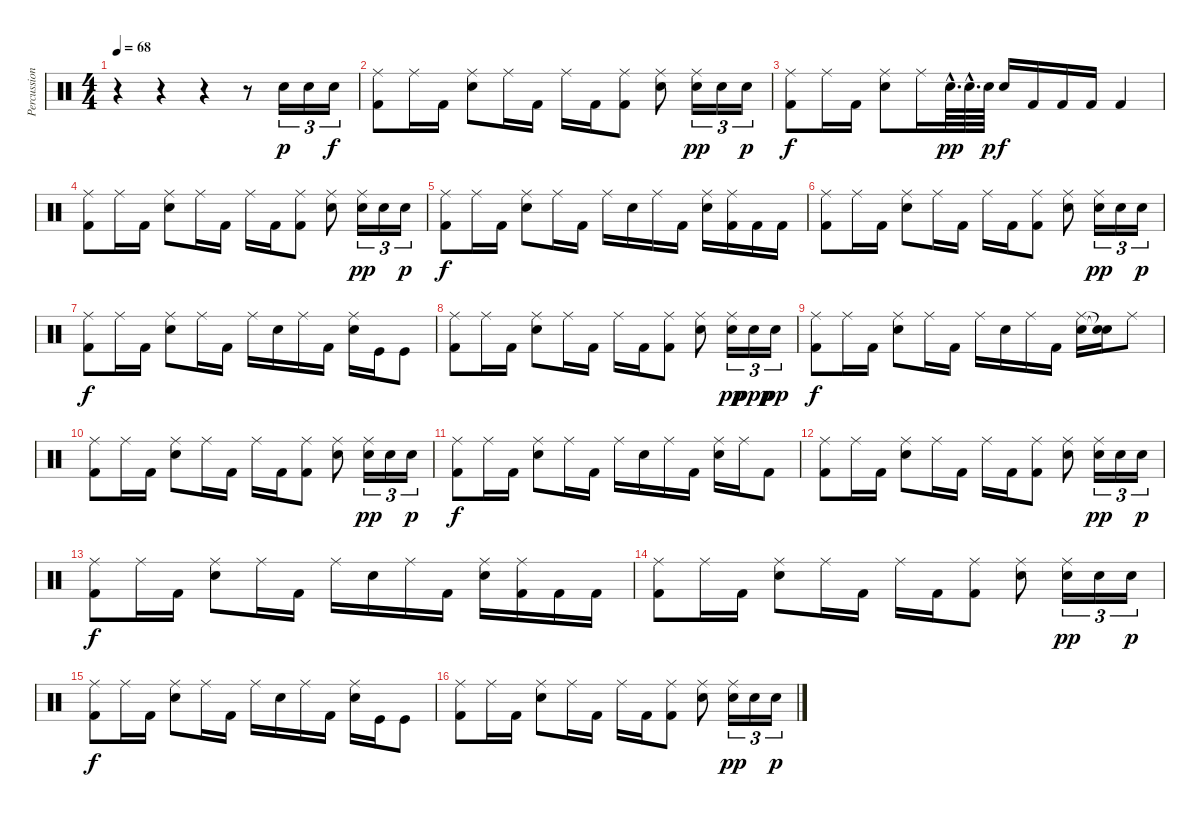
\track ("Percussion" "Percussion") {instrument percussion}
\staff {score}
\articulation defaults
\ts (4 4)
\tempo 68
\clef neutral
\ks c
r.4{dy p} r.4 r.4 r.8 "Snare (hit) 2".16{tu (3 2)} "Snare (hit) 2".16{tu (3 2)} "Snare (hit) 2".16{tu (3 2) dy f} |
("Ride (middle)" "Kick (hit) 2").8 "Ride (middle)".16 "Kick (hit) 2".16 ("Ride (middle)" "Snare (hit) 2").8 "Ride (middle)".16 "Kick (hit) 2".16 "Ride (middle)".16 "Kick (hit) 2".16 ("Ride (middle)" "Kick (hit) 2").8 ("Ride (middle)" "Snare (hit) 2").8 ("Ride (middle)" "Snare (hit) 2").16{tu (3 2) dy pp} "Snare (hit) 2".16{tu (3 2)} "Snare (hit) 2".16{tu (3 2) dy p} |
("Ride (middle)" "Kick (hit) 2").8{dy f} "Ride (middle)".16 "Kick (hit) 2".16 ("Ride (middle)" "Snare (hit) 2").8 "Ride (middle)".16 "Snare (hit) 2"{hac}.64{d dy pp} "Snare (hit) 2"{hac}.64{d} "Snare (hit) 2".64{dy p} "Snare (hit) 2".16{dy f} "Kick (hit) 2".16 "Kick (hit) 2".16 "Kick (hit) 2".16 "Kick (hit) 2".4 |
("Ride (middle)" "Kick (hit) 2").8 "Ride (middle)".16 "Kick (hit) 2".16 ("Ride (middle)" "Snare (hit) 2").8 "Ride (middle)".16 "Kick (hit) 2".16 "Ride (middle)".16 "Kick (hit) 2".16 ("Ride (middle)" "Kick (hit) 2").8 ("Ride (middle)" "Snare (hit) 2").8 ("Ride (middle)" "Snare (hit) 2").16{tu (3 2) dy pp} "Snare (hit) 2".16{tu (3 2)} "Snare (hit) 2".16{tu (3 2) dy p} |
("Ride (middle)" "Kick (hit) 2").8{dy f} "Ride (middle)".16 "Kick (hit) 2".16 ("Ride (middle)" "Snare (hit) 2").8 "Ride (middle)".16 "Kick (hit) 2".16 "Ride (middle)".16 "Snare (hit) 2".16 "Ride (middle)".16 "Kick (hit) 2".16 ("Ride (middle)" "Snare (hit) 2").16 ("Ride (middle)" "Kick (hit) 2").16 "Kick (hit) 2".16 "Kick (hit) 2".16 |
("Ride (middle)" "Kick (hit) 2").8 "Ride (middle)".16 "Kick (hit) 2".16 ("Ride (middle)" "Snare (hit) 2").8 "Ride (middle)".16 "Kick (hit) 2".16 "Ride (middle)".16 "Kick (hit) 2".16 ("Ride (middle)" "Kick (hit) 2").8 ("Ride (middle)" "Snare (hit) 2").8 ("Ride (middle)" "Snare (hit) 2").16{tu (3 2) dy pp} "Snare (hit) 2".16{tu (3 2)} "Snare (hit) 2".16{tu (3 2) dy p} |
("Ride (middle)" "Kick (hit) 2").8{dy f} "Ride (middle)".16 "Kick (hit) 2".16 ("Ride (middle)" "Snare (hit) 2").8 "Ride (middle)".16 "Kick (hit) 2".16 "Ride (middle)".16 "Snare (hit) 2".16 "Ride (middle)".16 "Kick (hit) 2".16 ("Ride (middle)" "Snare (hit) 2").16 "Kick (hit)".16 "Kick (hit)".8 |
("Ride (middle)" "Kick (hit) 2").8 "Ride (middle)".16 "Kick (hit) 2".16 ("Ride (middle)" "Snare (hit) 2").8 "Ride (middle)".16 "Kick (hit) 2".16 "Ride (middle)".16 "Kick (hit) 2".16 ("Ride (middle)" "Kick (hit) 2").8 ("Ride (middle)" "Snare (hit) 2").8 ("Ride (middle)" "Snare (hit) 2").16{tu (3 2) dy pp} "Snare (hit) 2".16{tu (3 2) dy ppp} "Snare (hit) 2".16{tu (3 2) dy pp} |
("Ride (middle)" "Kick (hit) 2").8{dy f} "Ride (middle)".16 "Kick (hit) 2".16 ("Ride (middle)" "Snare (hit) 2").8 "Ride (middle)".16 "Kick (hit) 2".16 "Ride (middle)".16 "Snare (hit) 2".16 "Ride (middle)".16 "Kick (hit) 2".16 ("Ride (middle)" "Snare (hit) 2").16 ("Snare (hit)"{t} "Snare (hit)"{t}).16 "Ride (middle)".8 |
("Ride (middle)" "Kick (hit) 2").8 "Ride (middle)".16 "Kick (hit) 2".16 ("Ride (middle)" "Snare (hit) 2").8 "Ride (middle)".16 "Kick (hit) 2".16 "Ride (middle)".16 "Kick (hit) 2".16 ("Ride (middle)" "Kick (hit) 2").8 ("Ride (middle)" "Snare (hit) 2").8 ("Ride (middle)" "Snare (hit) 2").16{tu (3 2) dy pp} "Snare (hit) 2".16{tu (3 2)} "Snare (hit) 2".16{tu (3 2) dy p} |
("Ride (middle)" "Kick (hit) 2").8{dy f} "Ride (middle)".16 "Kick (hit) 2".16 ("Ride (middle)" "Snare (hit) 2").8 "Ride (middle)".16 "Kick (hit) 2".16 "Ride (middle)".16 "Snare (hit) 2".16 "Ride (middle)".16 "Kick (hit) 2".16 ("Ride (middle)" "Snare (hit) 2").16 "Ride (middle)".16 "Kick (hit) 2".8 |
("Ride (middle)" "Kick (hit) 2").8 "Ride (middle)".16 "Kick (hit) 2".16 ("Ride (middle)" "Snare (hit) 2").8 "Ride (middle)".16 "Kick (hit) 2".16 "Ride (middle)".16 "Kick (hit) 2".16 ("Ride (middle)" "Kick (hit) 2").8 ("Ride (middle)" "Snare (hit) 2").8 ("Ride (middle)" "Snare (hit) 2").16{tu (3 2) dy pp} "Snare (hit) 2".16{tu (3 2)} "Snare (hit) 2".16{tu (3 2) dy p} |
("Ride (middle)" "Kick (hit) 2").8{dy f} "Ride (middle)".16 "Kick (hit) 2".16 ("Ride (middle)" "Snare (hit) 2").8 "Ride (middle)".16 "Kick (hit) 2".16 "Ride (middle)".16 "Snare (hit) 2".16 "Ride (middle)".16 "Kick (hit) 2".16 ("Ride (middle)" "Snare (hit) 2").16 ("Ride (middle)" "Kick (hit) 2").16 "Kick (hit) 2".16 "Kick (hit) 2".16 |
("Ride (middle)" "Kick (hit) 2").8 "Ride (middle)".16 "Kick (hit) 2".16 ("Ride (middle)" "Snare (hit) 2").8 "Ride (middle)".16 "Kick (hit) 2".16 "Ride (middle)".16 "Kick (hit) 2".16 ("Ride (middle)" "Kick (hit) 2").8 ("Ride (middle)" "Snare (hit) 2").8 ("Ride (middle)" "Snare (hit) 2").16{tu (3 2) dy pp} "Snare (hit) 2".16{tu (3 2)} "Snare (hit) 2".16{tu (3 2) dy p} |
("Ride (middle)" "Kick (hit) 2").8{dy f} "Ride (middle)".16 "Kick (hit) 2".16 ("Ride (middle)" "Snare (hit) 2").8 "Ride (middle)".16 "Kick (hit) 2".16 "Ride (middle)".16 "Snare (hit) 2".16 "Ride (middle)".16 "Kick (hit) 2".16 ("Ride (middle)" "Snare (hit) 2").16 "Kick (hit)".16 "Kick (hit)".8 |
("Ride (middle)" "Kick (hit) 2").8 "Ride (middle)".16 "Kick (hit) 2".16 ("Ride (middle)" "Snare (hit) 2").8 "Ride (middle)".16 "Kick (hit) 2".16 "Ride (middle)".16 "Kick (hit) 2".16 ("Ride (middle)" "Kick (hit) 2").8 ("Ride (middle)" "Snare (hit) 2").8 ("Ride (middle)" "Snare (hit) 2").16{tu (3 2) dy pp} "Snare (hit) 2".16{tu (3 2)} "Snare (hit) 2".16{tu (3 2) dy p}
